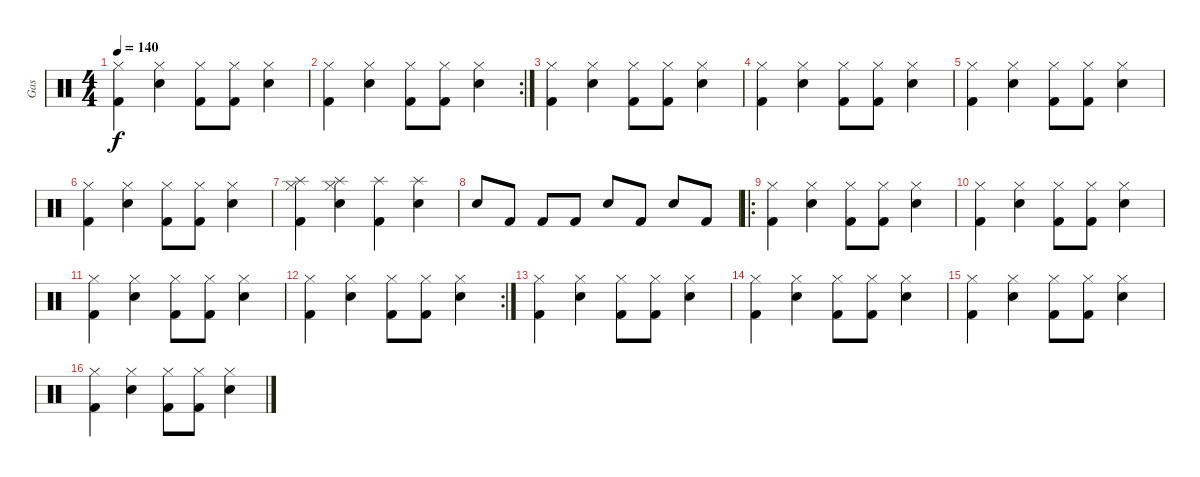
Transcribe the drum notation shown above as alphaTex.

\track ("Gas" "Gas") {instrument percussion}
\staff {score}
\articulation defaults
\ts (4 4)
\tempo 140
\clef neutral
\ks c
("Hi-Hat (closed)" "Kick (hit) 2").4{dy f} ("Hi-Hat (closed)" "Electric Snare (hit)").4 ("Hi-Hat (closed)" "Kick (hit) 2").8 ("Hi-Hat (closed)" "Kick (hit) 2").8 ("Hi-Hat (closed)" "Electric Snare (hit)").4 |
\rc 2
("Hi-Hat (closed)" "Kick (hit) 2").4 ("Hi-Hat (closed)" "Electric Snare (hit)").4 ("Hi-Hat (closed)" "Kick (hit) 2").8 ("Hi-Hat (closed)" "Kick (hit) 2").8 ("Hi-Hat (closed)" "Electric Snare (hit)").4 |
("Hi-Hat (closed)" "Kick (hit) 2").4 ("Hi-Hat (closed)" "Electric Snare (hit)").4 ("Hi-Hat (closed)" "Kick (hit) 2").8 ("Hi-Hat (closed)" "Kick (hit) 2").8 ("Hi-Hat (closed)" "Electric Snare (hit)").4 |
("Hi-Hat (closed)" "Kick (hit) 2").4 ("Hi-Hat (closed)" "Electric Snare (hit)").4 ("Hi-Hat (closed)" "Kick (hit) 2").8 ("Hi-Hat (closed)" "Kick (hit) 2").8 ("Hi-Hat (closed)" "Electric Snare (hit)").4 |
("Hi-Hat (closed)" "Kick (hit) 2").4 ("Hi-Hat (closed)" "Electric Snare (hit)").4 ("Hi-Hat (closed)" "Kick (hit) 2").8 ("Hi-Hat (closed)" "Kick (hit) 2").8 ("Hi-Hat (closed)" "Electric Snare (hit)").4 |
("Hi-Hat (closed)" "Kick (hit) 2").4 ("Hi-Hat (closed)" "Electric Snare (hit)").4 ("Hi-Hat (closed)" "Kick (hit) 2").8 ("Hi-Hat (closed)" "Kick (hit) 2").8 ("Hi-Hat (closed)" "Electric Snare (hit)").4 |
("Splash (hit)" "Hi-Hat (closed)" "Kick (hit) 2").4 ("Splash (hit)" "Hi-Hat (closed)" "Electric Snare (hit)").4 ("Splash (hit)" "Kick (hit) 2").4 ("Splash (hit)" "Electric Snare (hit)").4 |
"Electric Snare (hit)".8 "Kick (hit) 2".8 "Kick (hit) 2".8 "Kick (hit) 2".8 "Electric Snare (hit)".8 "Kick (hit) 2".8 "Electric Snare (hit)".8 "Kick (hit) 2".8 |
\ro
("Hi-Hat (closed)" "Kick (hit) 2").4 ("Hi-Hat (closed)" "Electric Snare (hit)").4 ("Hi-Hat (closed)" "Kick (hit) 2").8 ("Hi-Hat (closed)" "Kick (hit) 2").8 ("Hi-Hat (closed)" "Electric Snare (hit)").4 |
("Hi-Hat (closed)" "Kick (hit) 2").4 ("Hi-Hat (closed)" "Electric Snare (hit)").4 ("Hi-Hat (closed)" "Kick (hit) 2").8 ("Hi-Hat (closed)" "Kick (hit) 2").8 ("Hi-Hat (closed)" "Electric Snare (hit)").4 |
("Hi-Hat (closed)" "Kick (hit) 2").4 ("Hi-Hat (closed)" "Electric Snare (hit)").4 ("Hi-Hat (closed)" "Kick (hit) 2").8 ("Hi-Hat (closed)" "Kick (hit) 2").8 ("Hi-Hat (closed)" "Electric Snare (hit)").4 |
\rc 2
("Hi-Hat (closed)" "Kick (hit) 2").4 ("Hi-Hat (closed)" "Electric Snare (hit)").4 ("Hi-Hat (closed)" "Kick (hit) 2").8 ("Hi-Hat (closed)" "Kick (hit) 2").8 ("Hi-Hat (closed)" "Electric Snare (hit)").4 |
("Hi-Hat (closed)" "Kick (hit) 2").4 ("Hi-Hat (closed)" "Electric Snare (hit)").4 ("Hi-Hat (closed)" "Kick (hit) 2").8 ("Hi-Hat (closed)" "Kick (hit) 2").8 ("Hi-Hat (closed)" "Electric Snare (hit)").4 |
("Hi-Hat (closed)" "Kick (hit) 2").4 ("Hi-Hat (closed)" "Electric Snare (hit)").4 ("Hi-Hat (closed)" "Kick (hit) 2").8 ("Hi-Hat (closed)" "Kick (hit) 2").8 ("Hi-Hat (closed)" "Electric Snare (hit)").4 |
("Hi-Hat (closed)" "Kick (hit) 2").4 ("Hi-Hat (closed)" "Electric Snare (hit)").4 ("Hi-Hat (closed)" "Kick (hit) 2").8 ("Hi-Hat (closed)" "Kick (hit) 2").8 ("Hi-Hat (closed)" "Electric Snare (hit)").4 |
("Hi-Hat (closed)" "Kick (hit) 2").4 ("Hi-Hat (closed)" "Electric Snare (hit)").4 ("Hi-Hat (closed)" "Kick (hit) 2").8 ("Hi-Hat (closed)" "Kick (hit) 2").8 ("Hi-Hat (closed)" "Electric Snare (hit)").4
